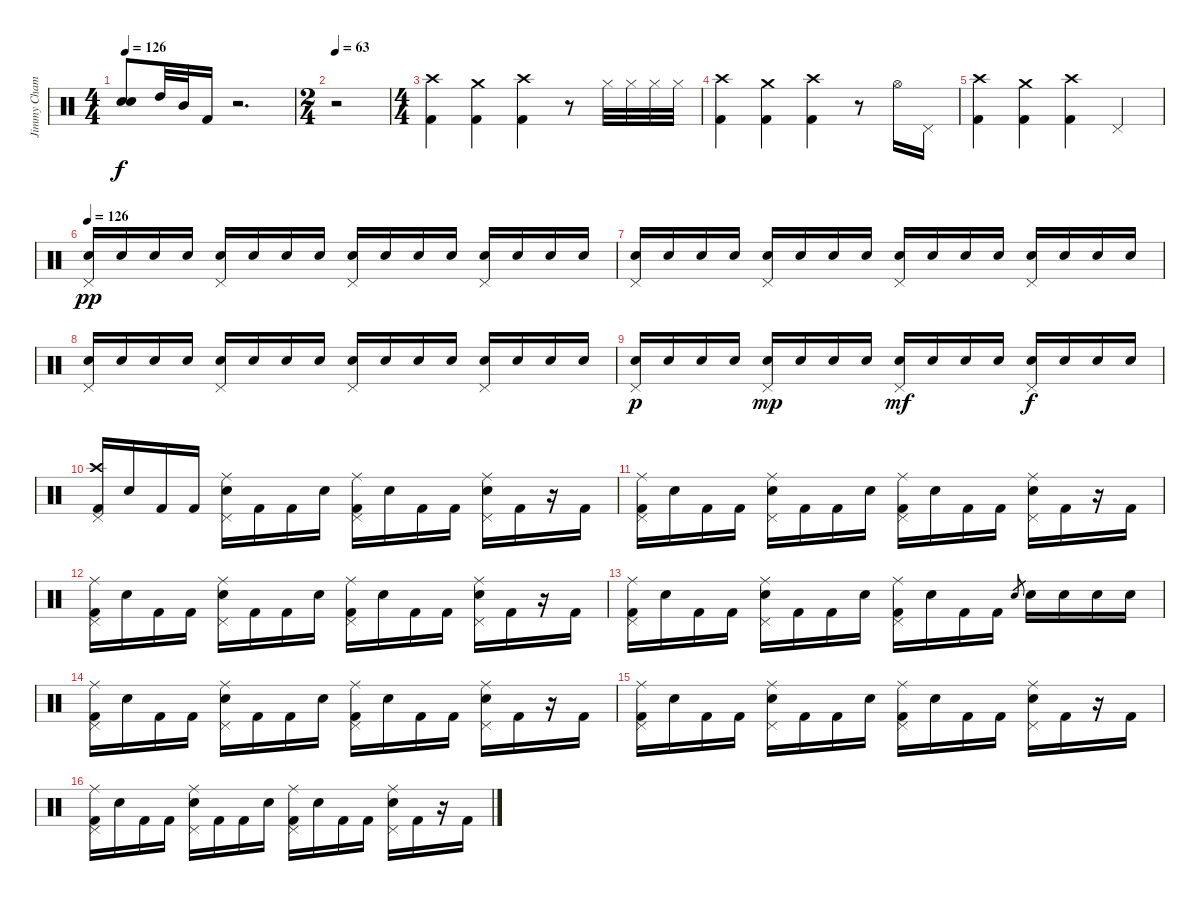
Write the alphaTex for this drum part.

\track ("Jimmy Chamberlain" "Jimmy Cham") {instrument percussion}
\staff {score}
\articulation defaults
\ts (4 4)
\tempo 126
\clef neutral
\ks c
("Snare (hit) 2" "Snare (hit) 2").8{dy f} "High Tom (hit)".32 "Mid Tom (hit)".32 "Kick (hit) 2".16 r.2{d} |
\ts (2 4)
\tempo 63
r.2 |
\ts (4 4)
("Crash high (hit)" "Kick (hit) 2").4 ("Crash medium (hit)" "Kick (hit) 2").4 ("Crash high (hit)" "Kick (hit) 2").4 r.8 "Hi-Hat (closed)".32 "Hi-Hat (closed)".32 "Hi-Hat (closed)".32 "Hi-Hat (closed)".32 |
("Crash high (hit)" "Kick (hit) 2").4 ("Crash medium (hit)" "Kick (hit) 2").4 ("Crash high (hit)" "Kick (hit) 2").4 r.8 "Hi-Hat (open)".16 "Pedal Hi-Hat (hit)".16 |
("Crash high (hit)" "Kick (hit) 2").4 ("Crash medium (hit)" "Kick (hit) 2").4 ("Crash high (hit)" "Kick (hit) 2").4 "Pedal Hi-Hat (hit)".4 |
\tempo 126
("Pedal Hi-Hat (hit)" "Snare (hit) 2").16{dy pp} "Snare (hit) 2".16 "Snare (hit) 2".16 "Snare (hit) 2".16 ("Pedal Hi-Hat (hit)" "Snare (hit) 2").16 "Snare (hit) 2".16 "Snare (hit) 2".16 "Snare (hit) 2".16 ("Pedal Hi-Hat (hit)" "Snare (hit) 2").16 "Snare (hit) 2".16 "Snare (hit) 2".16 "Snare (hit) 2".16 ("Pedal Hi-Hat (hit)" "Snare (hit) 2").16 "Snare (hit) 2".16 "Snare (hit) 2".16 "Snare (hit) 2".16 |
("Pedal Hi-Hat (hit)" "Snare (hit) 2").16 "Snare (hit) 2".16 "Snare (hit) 2".16 "Snare (hit) 2".16 ("Pedal Hi-Hat (hit)" "Snare (hit) 2").16 "Snare (hit) 2".16 "Snare (hit) 2".16 "Snare (hit) 2".16 ("Pedal Hi-Hat (hit)" "Snare (hit) 2").16 "Snare (hit) 2".16 "Snare (hit) 2".16 "Snare (hit) 2".16 ("Pedal Hi-Hat (hit)" "Snare (hit) 2").16 "Snare (hit) 2".16 "Snare (hit) 2".16 "Snare (hit) 2".16 |
("Pedal Hi-Hat (hit)" "Snare (hit) 2").16 "Snare (hit) 2".16 "Snare (hit) 2".16 "Snare (hit) 2".16 ("Pedal Hi-Hat (hit)" "Snare (hit) 2").16 "Snare (hit) 2".16 "Snare (hit) 2".16 "Snare (hit) 2".16 ("Pedal Hi-Hat (hit)" "Snare (hit) 2").16 "Snare (hit) 2".16 "Snare (hit) 2".16 "Snare (hit) 2".16 ("Pedal Hi-Hat (hit)" "Snare (hit) 2").16 "Snare (hit) 2".16 "Snare (hit) 2".16 "Snare (hit) 2".16 |
("Pedal Hi-Hat (hit)" "Snare (hit) 2").16{dy p} "Snare (hit) 2".16 "Snare (hit) 2".16 "Snare (hit) 2".16 ("Pedal Hi-Hat (hit)" "Snare (hit) 2").16{dy mp} "Snare (hit) 2".16 "Snare (hit) 2".16 "Snare (hit) 2".16 ("Pedal Hi-Hat (hit)" "Snare (hit) 2").16{dy mf} "Snare (hit) 2".16 "Snare (hit) 2".16 "Snare (hit) 2".16 ("Pedal Hi-Hat (hit)" "Snare (hit) 2").16{dy f} "Snare (hit) 2".16 "Snare (hit) 2".16 "Snare (hit) 2".16 |
("Crash high (hit)" "Pedal Hi-Hat (hit)" "Kick (hit) 2").16 "Snare (hit) 2".16 "Kick (hit) 2".16 "Kick (hit) 2".16 ("Ride (middle)" "Pedal Hi-Hat (hit)" "Snare (hit) 2").16 "Kick (hit) 2".16 "Kick (hit) 2".16 "Snare (hit) 2".16 ("Ride (middle)" "Pedal Hi-Hat (hit)" "Kick (hit) 2").16 "Snare (hit) 2".16 "Kick (hit) 2".16 "Kick (hit) 2".16 ("Ride (middle)" "Pedal Hi-Hat (hit)" "Snare (hit) 2").16 "Kick (hit) 2".16 r.16 "Kick (hit) 2".16 |
("Ride (middle)" "Pedal Hi-Hat (hit)" "Kick (hit) 2").16 "Snare (hit) 2".16 "Kick (hit) 2".16 "Kick (hit) 2".16 ("Ride (middle)" "Pedal Hi-Hat (hit)" "Snare (hit) 2").16 "Kick (hit) 2".16 "Kick (hit) 2".16 "Snare (hit) 2".16 ("Ride (middle)" "Pedal Hi-Hat (hit)" "Kick (hit) 2").16 "Snare (hit) 2".16 "Kick (hit) 2".16 "Kick (hit) 2".16 ("Ride (middle)" "Pedal Hi-Hat (hit)" "Snare (hit) 2").16 "Kick (hit) 2".16 r.16 "Kick (hit) 2".16 |
("Ride (middle)" "Pedal Hi-Hat (hit)" "Kick (hit) 2").16 "Snare (hit) 2".16 "Kick (hit) 2".16 "Kick (hit) 2".16 ("Ride (middle)" "Pedal Hi-Hat (hit)" "Snare (hit) 2").16 "Kick (hit) 2".16 "Kick (hit) 2".16 "Snare (hit) 2".16 ("Ride (middle)" "Pedal Hi-Hat (hit)" "Kick (hit) 2").16 "Snare (hit) 2".16 "Kick (hit) 2".16 "Kick (hit) 2".16 ("Ride (middle)" "Pedal Hi-Hat (hit)" "Snare (hit) 2").16 "Kick (hit) 2".16 r.16 "Kick (hit) 2".16 |
("Ride (middle)" "Pedal Hi-Hat (hit)" "Kick (hit) 2").16 "Snare (hit) 2".16 "Kick (hit) 2".16 "Kick (hit) 2".16 ("Ride (middle)" "Pedal Hi-Hat (hit)" "Snare (hit) 2").16 "Kick (hit) 2".16 "Kick (hit) 2".16 "Snare (hit) 2".16 ("Ride (middle)" "Pedal Hi-Hat (hit)" "Kick (hit) 2").16 "Snare (hit) 2".16 "Kick (hit) 2".16 "Kick (hit) 2".16 "Snare (hit) 2".8{gr} "Snare (hit) 2".16 "Snare (hit) 2".16 "Snare (hit) 2".16 "Snare (hit) 2".16 |
("Ride (middle)" "Pedal Hi-Hat (hit)" "Kick (hit) 2").16 "Snare (hit) 2".16 "Kick (hit) 2".16 "Kick (hit) 2".16 ("Ride (middle)" "Pedal Hi-Hat (hit)" "Snare (hit) 2").16 "Kick (hit) 2".16 "Kick (hit) 2".16 "Snare (hit) 2".16 ("Ride (middle)" "Pedal Hi-Hat (hit)" "Kick (hit) 2").16 "Snare (hit) 2".16 "Kick (hit) 2".16 "Kick (hit) 2".16 ("Ride (middle)" "Pedal Hi-Hat (hit)" "Snare (hit) 2").16 "Kick (hit) 2".16 r.16 "Kick (hit) 2".16 |
("Ride (middle)" "Pedal Hi-Hat (hit)" "Kick (hit) 2").16 "Snare (hit) 2".16 "Kick (hit) 2".16 "Kick (hit) 2".16 ("Ride (middle)" "Pedal Hi-Hat (hit)" "Snare (hit) 2").16 "Kick (hit) 2".16 "Kick (hit) 2".16 "Snare (hit) 2".16 ("Ride (middle)" "Pedal Hi-Hat (hit)" "Kick (hit) 2").16 "Snare (hit) 2".16 "Kick (hit) 2".16 "Kick (hit) 2".16 ("Ride (middle)" "Pedal Hi-Hat (hit)" "Snare (hit) 2").16 "Kick (hit) 2".16 r.16 "Kick (hit) 2".16 |
("Ride (middle)" "Pedal Hi-Hat (hit)" "Kick (hit) 2").16 "Snare (hit) 2".16 "Kick (hit) 2".16 "Kick (hit) 2".16 ("Ride (middle)" "Pedal Hi-Hat (hit)" "Snare (hit) 2").16 "Kick (hit) 2".16 "Kick (hit) 2".16 "Snare (hit) 2".16 ("Ride (middle)" "Pedal Hi-Hat (hit)" "Kick (hit) 2").16 "Snare (hit) 2".16 "Kick (hit) 2".16 "Kick (hit) 2".16 ("Ride (middle)" "Pedal Hi-Hat (hit)" "Snare (hit) 2").16 "Kick (hit) 2".16 r.16 "Kick (hit) 2".16
